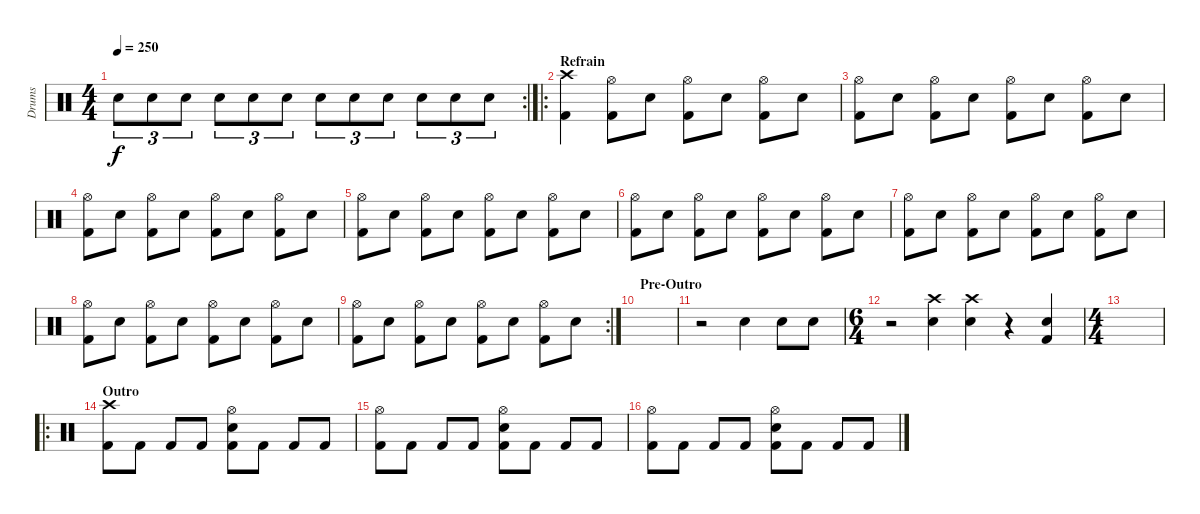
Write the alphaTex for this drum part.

\track ("Drums" "Drums") {instrument percussion}
\staff {score}
\articulation defaults
\rc 2
\ts (4 4)
\tempo 250
\clef neutral
\ks c "Snare (hit) 2".8{tu (3 2) dy f} "Snare (hit) 2".8{tu (3 2)} "Snare (hit) 2".8{tu (3 2)} "Snare (hit) 2".8{tu (3 2)} "Snare (hit) 2".8{tu (3 2)} "Snare (hit) 2".8{tu (3 2)} "Snare (hit) 2".8{tu (3 2)} "Snare (hit) 2".8{tu (3 2)} "Snare (hit) 2".8{tu (3 2)} "Snare (hit) 2".8{tu (3 2)} "Snare (hit) 2".8{tu (3 2)} "Snare (hit) 2".8{tu (3 2)}
|
\ro
\section ("" "Refrain")
("Crash high (hit)" "Kick (hit) 2").4 ("Hi-Hat (open)" "Kick (hit) 2").8 "Snare (hit) 2".8 ("Hi-Hat (open)" "Kick (hit) 2").8 "Snare (hit) 2".8 ("Hi-Hat (open)" "Kick (hit) 2").8 "Snare (hit) 2".8 |
("Hi-Hat (open)" "Kick (hit) 2").8 "Snare (hit) 2".8 ("Hi-Hat (open)" "Kick (hit) 2").8 "Snare (hit) 2".8 ("Hi-Hat (open)" "Kick (hit) 2").8 "Snare (hit) 2".8 ("Hi-Hat (open)" "Kick (hit) 2").8 "Snare (hit) 2".8 |
("Hi-Hat (open)" "Kick (hit) 2").8 "Snare (hit) 2".8 ("Hi-Hat (open)" "Kick (hit) 2").8 "Snare (hit) 2".8 ("Hi-Hat (open)" "Kick (hit) 2").8 "Snare (hit) 2".8 ("Hi-Hat (open)" "Kick (hit) 2").8 "Snare (hit) 2".8 |
("Hi-Hat (open)" "Kick (hit) 2").8 "Snare (hit) 2".8 ("Hi-Hat (open)" "Kick (hit) 2").8 "Snare (hit) 2".8 ("Hi-Hat (open)" "Kick (hit) 2").8 "Snare (hit) 2".8 ("Hi-Hat (open)" "Kick (hit) 2").8 "Snare (hit) 2".8 |
("Hi-Hat (open)" "Kick (hit) 2").8 "Snare (hit) 2".8 ("Hi-Hat (open)" "Kick (hit) 2").8 "Snare (hit) 2".8 ("Hi-Hat (open)" "Kick (hit) 2").8 "Snare (hit) 2".8 ("Hi-Hat (open)" "Kick (hit) 2").8 "Snare (hit) 2".8 |
("Hi-Hat (open)" "Kick (hit) 2").8 "Snare (hit) 2".8 ("Hi-Hat (open)" "Kick (hit) 2").8 "Snare (hit) 2".8 ("Hi-Hat (open)" "Kick (hit) 2").8 "Snare (hit) 2".8 ("Hi-Hat (open)" "Kick (hit) 2").8 "Snare (hit) 2".8 |
("Hi-Hat (open)" "Kick (hit) 2").8 "Snare (hit) 2".8 ("Hi-Hat (open)" "Kick (hit) 2").8 "Snare (hit) 2".8 ("Hi-Hat (open)" "Kick (hit) 2").8 "Snare (hit) 2".8 ("Hi-Hat (open)" "Kick (hit) 2").8 "Snare (hit) 2".8 |
\rc 2
("Hi-Hat (open)" "Kick (hit) 2").8 "Snare (hit) 2".8 ("Hi-Hat (open)" "Kick (hit) 2").8 "Snare (hit) 2".8 ("Hi-Hat (open)" "Kick (hit) 2").8 "Snare (hit) 2".8 ("Hi-Hat (open)" "Kick (hit) 2").8 "Snare (hit) 2".8 |
\section ("" "Pre-Outro")
|
r.2 "Snare (hit) 2".4 "Snare (hit) 2".8 "Snare (hit) 2".8 |
\ts (6 4)
r.2 ("Crash high (hit)" "Snare (hit) 2").4 ("Crash high (hit)" "Snare (hit) 2").4 r.4 ("Snare (hit) 2" "Kick (hit) 2").4 |
\ts (4 4)
|
\ro
\section ("" "Outro")
("Crash high (hit)" "Kick (hit) 2").8 "Kick (hit) 2".8 "Kick (hit) 2".8 "Kick (hit) 2".8 ("Snare (hit) 2" "Kick (hit) 2" "Hi-Hat (open)").8 "Kick (hit) 2".8 "Kick (hit) 2".8 "Kick (hit) 2".8 |
("Kick (hit) 2" "Hi-Hat (open)").8 "Kick (hit) 2".8 "Kick (hit) 2".8 "Kick (hit) 2".8 ("Snare (hit) 2" "Kick (hit) 2" "Hi-Hat (open)").8 "Kick (hit) 2".8 "Kick (hit) 2".8 "Kick (hit) 2".8 |
("Kick (hit) 2" "Hi-Hat (open)").8 "Kick (hit) 2".8 "Kick (hit) 2".8 "Kick (hit) 2".8 ("Snare (hit) 2" "Kick (hit) 2" "Hi-Hat (open)").8 "Kick (hit) 2".8 "Kick (hit) 2".8 "Kick (hit) 2".8
